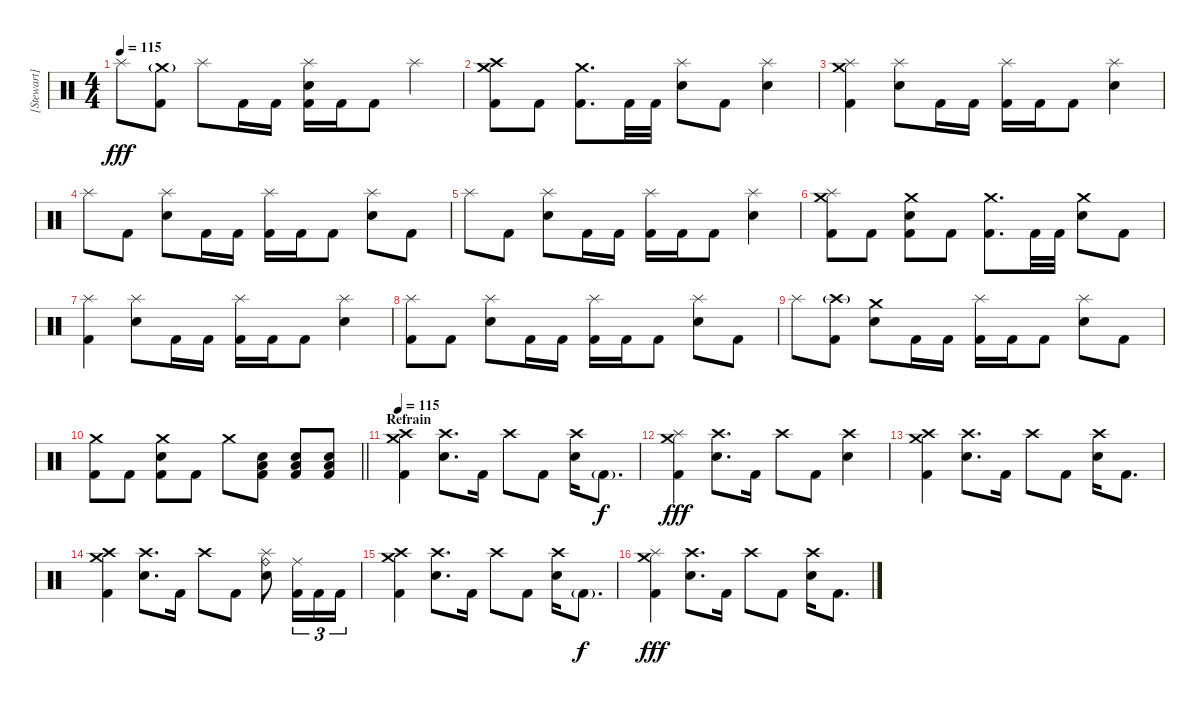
\track ("[Stewart] Drums " "[Stewart] ") {instrument percussion}
\staff {score}
\articulation defaults
\ts (4 4)
\tempo 115
\clef neutral
\ks c "Splash (hit)".8{dy fff}
("Crash medium (hit)"{g} "Kick (hit) 2").8 "Splash (hit)".8 "Kick (hit) 2".16 "Kick (hit) 2".16 ("Splash (hit)" "Electric Snare (hit)" "Kick (hit) 2").16 "Kick (hit) 2".16 "Kick (hit) 2".8 "Splash (hit)".4 |
("Crash medium (hit)" "Crash high (hit)" "Kick (hit) 2").8 "Kick (hit) 2".8 ("Crash medium (hit)" "Kick (hit) 2").8{d} "Kick (hit) 2".32 "Kick (hit) 2".32 ("Splash (hit)" "Electric Snare (hit)").8 "Kick (hit) 2".8 ("Splash (hit)" "Electric Snare (hit)").4 |
("Crash medium (hit)" "Splash (hit)" "Kick (hit) 2").4 ("Splash (hit)" "Electric Snare (hit)").8 "Kick (hit) 2".16 "Kick (hit) 2".16 ("Splash (hit)" "Kick (hit) 2").16 "Kick (hit) 2".16 "Kick (hit) 2".8 ("Splash (hit)" "Electric Snare (hit)").4 |
"Splash (hit)".8 "Kick (hit) 2".8 ("Splash (hit)" "Electric Snare (hit)").8 "Kick (hit) 2".16 "Kick (hit) 2".16 ("Splash (hit)" "Kick (hit) 2").16 "Kick (hit) 2".16 "Kick (hit) 2".8 ("Splash (hit)" "Electric Snare (hit)").8 "Kick (hit) 2".8 |
"Splash (hit)".8 "Kick (hit) 2".8 ("Splash (hit)" "Electric Snare (hit)").8 "Kick (hit) 2".16 "Kick (hit) 2".16 ("Splash (hit)" "Kick (hit) 2").16 "Kick (hit) 2".16 "Kick (hit) 2".8 ("Splash (hit)" "Electric Snare (hit)").4 |
("Crash medium (hit)" "Splash (hit)" "Kick (hit) 2").8 "Kick (hit) 2".8 ("Crash medium (hit)" "Electric Snare (hit)" "Kick (hit) 2").8 "Kick (hit) 2".8 ("Crash medium (hit)" "Kick (hit) 2").8{d} "Kick (hit) 2".32 "Kick (hit) 2".32 ("Crash medium (hit)" "Electric Snare (hit)").8 "Kick (hit) 2".8 |
("Splash (hit)" "Kick (hit) 2").4 ("Splash (hit)" "Electric Snare (hit)").8 "Kick (hit) 2".16 "Kick (hit) 2".16 ("Splash (hit)" "Kick (hit) 2").16 "Kick (hit) 2".16 "Kick (hit) 2".8 ("Splash (hit)" "Electric Snare (hit)").4 |
("Splash (hit)" "Kick (hit) 2").8 "Kick (hit) 2".8 ("Splash (hit)" "Electric Snare (hit)").8 "Kick (hit) 2".16 "Kick (hit) 2".16 ("Splash (hit)" "Kick (hit) 2").16 "Kick (hit) 2".16 "Kick (hit) 2".8 ("Splash (hit)" "Electric Snare (hit)").8 "Kick (hit) 2".8 |
"Splash (hit)".8 ("Crash high (hit)"{g} "Kick (hit) 2").8 ("Crash medium (hit)" "Electric Snare (hit)").8 "Kick (hit) 2".16 "Kick (hit) 2".16 ("Splash (hit)" "Kick (hit) 2").16 "Kick (hit) 2".16 "Kick (hit) 2".8 ("Splash (hit)" "Electric Snare (hit)").8 "Kick (hit) 2".8 |
\barLineRight lightlight
("Crash medium (hit)" "Kick (hit) 2").8 "Kick (hit) 2".8 ("Crash medium (hit)" "Electric Snare (hit)" "Kick (hit) 2").8 "Kick (hit) 2".8 "Crash medium (hit)".8 ("Low Tom (hit)" "Electric Snare (hit)" "Kick (hit) 2").8 ("Low Tom (hit)" "Electric Snare (hit)" "Kick (hit) 2").8 ("Low Tom (hit)" "Electric Snare (hit)" "Kick (hit) 2").8 |
\section ("" "Refrain ")
\tempo 115
("Crash medium (hit)" "Crash high (hit)" "Kick (hit) 2").4 ("Crash high (hit)" "Electric Snare (hit)").8{d} "Kick (hit) 2".16 "Crash high (hit)".8 "Kick (hit) 2".8 ("Crash high (hit)" "Electric Snare (hit)").16 "Kick (hit) 2"{g}.8{d dy f} |
("Crash medium (hit)" "Splash (hit)" "Kick (hit) 2").4{dy fff} ("Crash high (hit)" "Electric Snare (hit)").8{d} "Kick (hit) 2".16 "Crash high (hit)".8 "Kick (hit) 2".8 ("Crash high (hit)" "Electric Snare (hit)").4 |
("Crash medium (hit)" "Crash high (hit)" "Kick (hit) 2").4 ("Crash high (hit)" "Electric Snare (hit)").8{d} "Kick (hit) 2".16 "Crash high (hit)".8 "Kick (hit) 2".8 ("Crash high (hit)" "Electric Snare (hit)").16 "Kick (hit) 2".8{d} |
("Crash medium (hit)" "Crash high (hit)" "Kick (hit) 2").4 ("Crash high (hit)" "Electric Snare (hit)").8{d} "Kick (hit) 2".16 "Crash high (hit)".8 "Kick (hit) 2".8 ("Ride (bell)" "Splash (hit)" "Electric Snare (hit)").8 ("Ride (middle)" "Kick (hit) 2").16{tu (3 2)} "Kick (hit) 2".16{tu (3 2)} "Kick (hit) 2".16{tu (3 2)} |
("Crash medium (hit)" "Crash high (hit)" "Kick (hit) 2").4 ("Crash high (hit)" "Electric Snare (hit)").8{d} "Kick (hit) 2".16 "Crash high (hit)".8 "Kick (hit) 2".8 ("Crash high (hit)" "Electric Snare (hit)").16 "Kick (hit) 2"{g}.8{d dy f} |
("Crash medium (hit)" "Splash (hit)" "Kick (hit) 2").4{dy fff} ("Crash high (hit)" "Electric Snare (hit)").8{d} "Kick (hit) 2".16 "Crash high (hit)".8 "Kick (hit) 2".8 ("Crash high (hit)" "Electric Snare (hit)").16 "Kick (hit) 2".8{d}
